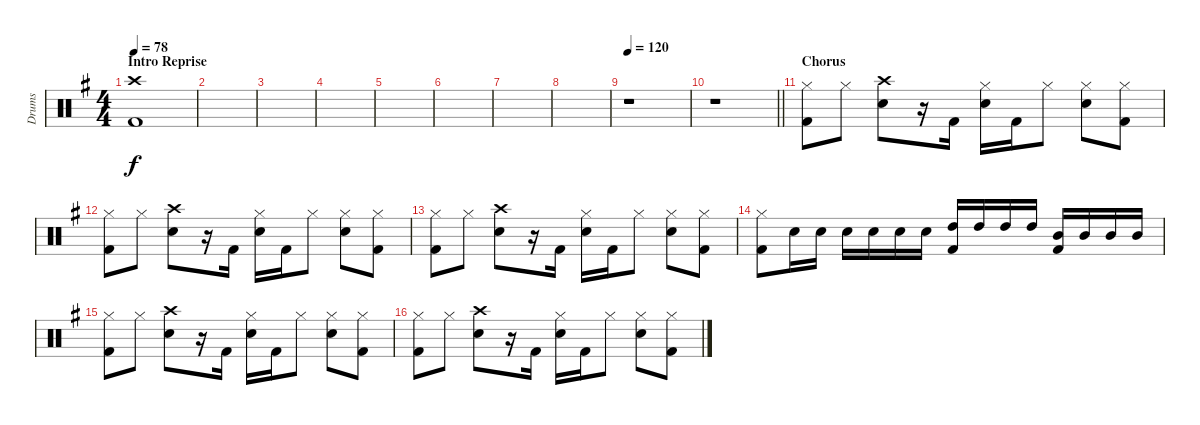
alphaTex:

\track ("Drums" "Drums") {instrument percussion}
\staff {score}
\articulation defaults
\ts (4 4)
\section ("" "Intro Reprise")
\tempo 78
\clef neutral
\ks g
("Crash high (hit)" "Kick (hit) 2").1{dy f} |
|
|
|
|
|
|
|
\tempo 120
r.1 |
\barLineRight lightlight
r.1 |
\section ("" "Chorus")
("Hi-Hat (closed)" "Kick (hit) 2").8 "Hi-Hat (closed)".8 ("Crash high (hit)" "Electric Snare (hit)").8 r.16 "Kick (hit) 2".16 ("Hi-Hat (closed)" "Electric Snare (hit)").16 "Kick (hit) 2".16 "Hi-Hat (closed)".8 ("Hi-Hat (closed)" "Electric Snare (hit)").8 ("Hi-Hat (closed)" "Kick (hit) 2").8 |
("Hi-Hat (closed)" "Kick (hit) 2").8 "Hi-Hat (closed)".8 ("Crash high (hit)" "Electric Snare (hit)").8 r.16 "Kick (hit) 2".16 ("Hi-Hat (closed)" "Electric Snare (hit)").16 "Kick (hit) 2".16 "Hi-Hat (closed)".8 ("Hi-Hat (closed)" "Electric Snare (hit)").8 ("Hi-Hat (closed)" "Kick (hit) 2").8 |
("Hi-Hat (closed)" "Kick (hit) 2").8 "Hi-Hat (closed)".8 ("Crash high (hit)" "Electric Snare (hit)").8 r.16 "Kick (hit) 2".16 ("Hi-Hat (closed)" "Electric Snare (hit)").16 "Kick (hit) 2".16 "Hi-Hat (closed)".8 ("Hi-Hat (closed)" "Electric Snare (hit)").8 ("Hi-Hat (closed)" "Kick (hit) 2").8 |
("Hi-Hat (closed)" "Kick (hit) 2").8 "Electric Snare (hit)".16 "Electric Snare (hit)".16 "Electric Snare (hit)".16 "Electric Snare (hit)".16 "Electric Snare (hit)".16 "Electric Snare (hit)".16 ("High Tom (hit)" "Kick (hit) 2").16 "High Tom (hit)".16 "High Tom (hit)".16 "High Tom (hit)".16 ("Mid Tom (hit)" "Kick (hit) 2").16 "Mid Tom (hit)".16 "Mid Tom (hit)".16 "Mid Tom (hit)".16 |
("Hi-Hat (closed)" "Kick (hit) 2").8 "Hi-Hat (closed)".8 ("Crash high (hit)" "Electric Snare (hit)").8 r.16 "Kick (hit) 2".16 ("Hi-Hat (closed)" "Electric Snare (hit)").16 "Kick (hit) 2".16 "Hi-Hat (closed)".8 ("Hi-Hat (closed)" "Electric Snare (hit)").8 ("Hi-Hat (closed)" "Kick (hit) 2").8 |
("Hi-Hat (closed)" "Kick (hit) 2").8 "Hi-Hat (closed)".8 ("Crash high (hit)" "Electric Snare (hit)").8 r.16 "Kick (hit) 2".16 ("Hi-Hat (closed)" "Electric Snare (hit)").16 "Kick (hit) 2".16 "Hi-Hat (closed)".8 ("Hi-Hat (closed)" "Electric Snare (hit)").8 ("Hi-Hat (closed)" "Kick (hit) 2").8
